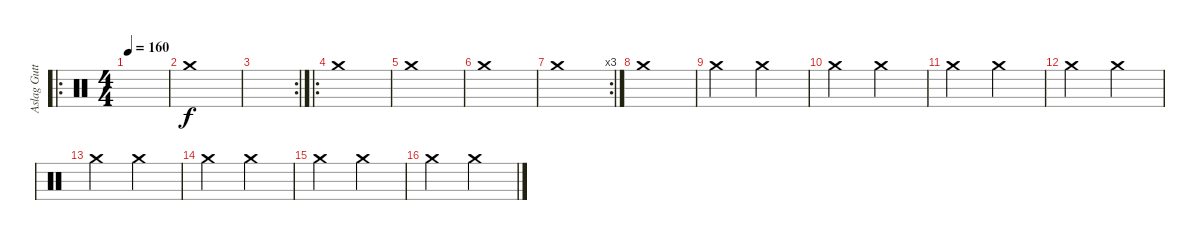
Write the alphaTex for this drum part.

\track ("Aslag Guttormsgaard (sledgehammer,stove)" "Aslag Gutt") {instrument percussion}
\staff {score}
\articulation defaults
\ro
\ts (4 4)
\tempo 160
\clef neutral
\ks c
|
"Crash medium (hit)".1 |
\rc 2
|
\ro "Crash medium (hit)".1
|
"Crash medium (hit)".1 |
"Crash medium (hit)".1 |
\rc 3 "Crash medium (hit)".1
|
"Crash medium (hit)".1 |
"Crash medium (hit)".2 "Crash medium (hit)".2 |
"Crash medium (hit)".2 "Crash medium (hit)".2 |
"Crash medium (hit)".2 "Crash medium (hit)".2 |
"Crash medium (hit)".2 "Crash medium (hit)".2 |
"Crash medium (hit)".2 "Crash medium (hit)".2 |
"Crash medium (hit)".2 "Crash medium (hit)".2 |
"Crash medium (hit)".2 "Crash medium (hit)".2 |
"Crash medium (hit)".2 "Crash medium (hit)".2
